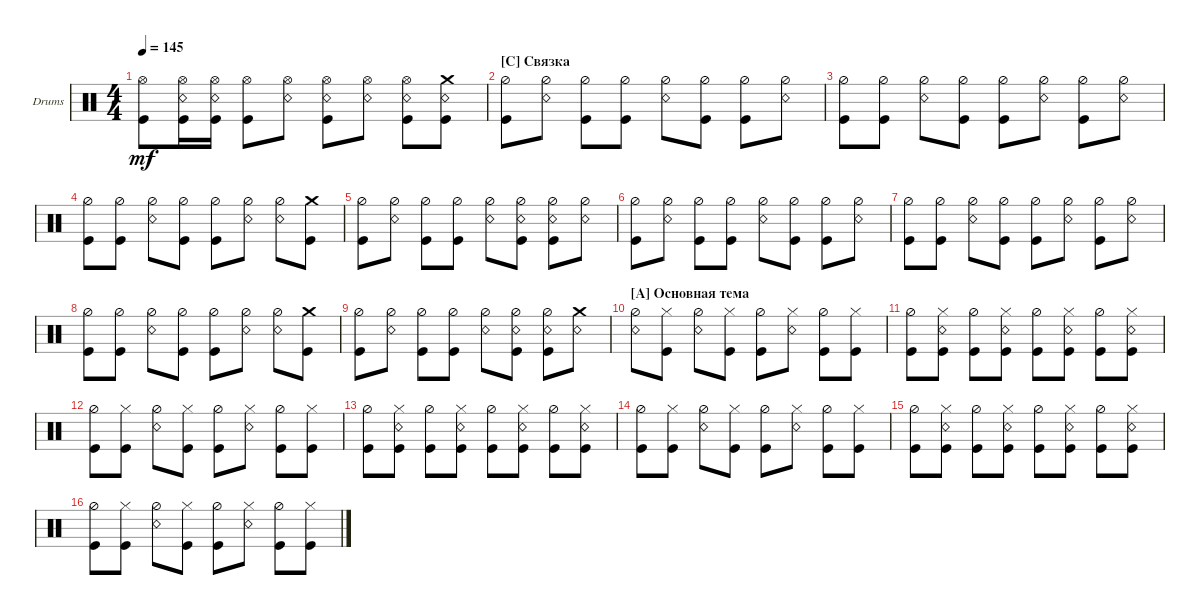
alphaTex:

\defaultSystemsLayout 4
\bracketExtendMode groupsimilarinstruments
\firstSystemTrackNameOrientation horizontal
\otherSystemsTrackNameOrientation horizontal
\track ("Drumkit" "Drums") {instrument percussion}
\staff {score}
\articulation defaults
\ts (4 4)
\tempo 145
\clef neutral
\ks c
("Kick (hit)" "Hi-Hat (open)").8{dy mf} ("Snare (rim shot)" "Hi-Hat (open)" "Kick (hit)").16 ("Snare (rim shot)" "Hi-Hat (open)" "Kick (hit)").16 ("Kick (hit)" "Hi-Hat (open)").8 ("Snare (rim shot)" "Hi-Hat (open)").8 ("Kick (hit)" "Snare (rim shot)" "Hi-Hat (open)").8 ("Snare (rim shot)" "Hi-Hat (open)").8 ("Kick (hit)" "Snare (rim shot)" "Hi-Hat (open)").8 ("Snare (rim shot)" "Crash medium (hit)" "Kick (hit)").8 |
\section ("C" "Связка")
("Kick (hit)" "Hi-Hat (half)").8 ("Snare (rim shot)" "Hi-Hat (half)").8 ("Kick (hit)" "Hi-Hat (half)").8 ("Kick (hit)" "Hi-Hat (half)").8 ("Snare (rim shot)" "Hi-Hat (half)").8 ("Kick (hit)" "Hi-Hat (half)").8 ("Kick (hit)" "Hi-Hat (half)").8 ("Snare (rim shot)" "Hi-Hat (half)").8 |
("Kick (hit)" "Hi-Hat (half)").8 ("Kick (hit)" "Hi-Hat (half)").8 ("Snare (rim shot)" "Hi-Hat (half)").8 ("Kick (hit)" "Hi-Hat (half)").8 ("Kick (hit)" "Hi-Hat (half)").8 ("Snare (rim shot)" "Hi-Hat (half)").8 ("Kick (hit)" "Hi-Hat (half)").8 ("Snare (rim shot)" "Hi-Hat (half)").8 |
("Kick (hit)" "Hi-Hat (half)").8 ("Kick (hit)" "Hi-Hat (half)").8 ("Snare (rim shot)" "Hi-Hat (half)").8 ("Kick (hit)" "Hi-Hat (half)").8 ("Kick (hit)" "Hi-Hat (half)").8 ("Snare (rim shot)" "Hi-Hat (half)").8 ("Snare (rim shot)" "Hi-Hat (half)").8 ("Kick (hit)" "Crash medium (hit)").8 |
("Kick (hit)" "Hi-Hat (half)").8 ("Snare (rim shot)" "Hi-Hat (half)").8 ("Kick (hit)" "Hi-Hat (half)").8 ("Kick (hit)" "Hi-Hat (half)").8 ("Snare (rim shot)" "Hi-Hat (half)").8 ("Kick (hit)" "Hi-Hat (half)" "Snare (rim shot)").8 ("Kick (hit)" "Hi-Hat (half)" "Snare (rim shot)").8 ("Snare (rim shot)" "Hi-Hat (half)").8 |
("Kick (hit)" "Hi-Hat (half)").8 ("Snare (rim shot)" "Hi-Hat (half)").8 ("Kick (hit)" "Hi-Hat (half)").8 ("Kick (hit)" "Hi-Hat (half)").8 ("Snare (rim shot)" "Hi-Hat (half)").8 ("Kick (hit)" "Hi-Hat (half)").8 ("Kick (hit)" "Hi-Hat (half)").8 ("Snare (rim shot)" "Hi-Hat (half)").8 |
("Kick (hit)" "Hi-Hat (half)").8 ("Kick (hit)" "Hi-Hat (half)").8 ("Snare (rim shot)" "Hi-Hat (half)").8 ("Kick (hit)" "Hi-Hat (half)").8 ("Kick (hit)" "Hi-Hat (half)").8 ("Snare (rim shot)" "Hi-Hat (half)").8 ("Kick (hit)" "Hi-Hat (half)").8 ("Snare (rim shot)" "Hi-Hat (half)").8 |
("Kick (hit)" "Hi-Hat (half)").8 ("Kick (hit)" "Hi-Hat (half)").8 ("Snare (rim shot)" "Hi-Hat (half)").8 ("Kick (hit)" "Hi-Hat (half)").8 ("Kick (hit)" "Hi-Hat (half)").8 ("Snare (rim shot)" "Hi-Hat (half)").8 ("Snare (rim shot)" "Hi-Hat (half)").8 ("Kick (hit)" "Crash medium (hit)").8 |
("Kick (hit)" "Hi-Hat (half)").8 ("Snare (rim shot)" "Hi-Hat (half)").8 ("Kick (hit)" "Hi-Hat (half)").8 ("Kick (hit)" "Hi-Hat (half)").8 ("Snare (rim shot)" "Hi-Hat (half)").8 ("Kick (hit)" "Hi-Hat (half)" "Snare (rim shot)").8 ("Kick (hit)" "Hi-Hat (half)" "Snare (rim shot)").8 ("Snare (rim shot)" "Crash medium (hit)").8 |
\section ("A" "Основная тема")
("Hi-Hat (half)" "Snare (rim shot)").8 ("Hi-Hat (closed)" "Kick (hit)").8 ("Hi-Hat (half)" "Snare (rim shot)").8 ("Hi-Hat (closed)" "Kick (hit)").8 ("Hi-Hat (half)" "Kick (hit)").8 ("Hi-Hat (closed)" "Snare (rim shot)").8 ("Hi-Hat (half)" "Kick (hit)").8 ("Hi-Hat (closed)" "Kick (hit)").8 |
("Kick (hit)" "Hi-Hat (half)").8 ("Kick (hit)" "Hi-Hat (closed)" "Snare (rim shot)").8 ("Kick (hit)" "Hi-Hat (half)").8 ("Kick (hit)" "Hi-Hat (closed)" "Snare (rim shot)").8 ("Kick (hit)" "Hi-Hat (half)").8 ("Kick (hit)" "Hi-Hat (closed)" "Snare (rim shot)").8 ("Kick (hit)" "Hi-Hat (half)").8 ("Kick (hit)" "Hi-Hat (closed)" "Snare (rim shot)").8 |
("Hi-Hat (half)" "Kick (hit)").8 ("Hi-Hat (closed)" "Kick (hit)").8 ("Hi-Hat (half)" "Snare (rim shot)").8 ("Hi-Hat (closed)" "Kick (hit)").8 ("Hi-Hat (half)" "Kick (hit)").8 ("Hi-Hat (closed)" "Snare (rim shot)").8 ("Hi-Hat (half)" "Kick (hit)").8 ("Hi-Hat (closed)" "Kick (hit)").8 |
("Kick (hit)" "Hi-Hat (half)").8 ("Kick (hit)" "Hi-Hat (closed)" "Snare (rim shot)").8 ("Kick (hit)" "Hi-Hat (half)").8 ("Kick (hit)" "Hi-Hat (closed)" "Snare (rim shot)").8 ("Kick (hit)" "Hi-Hat (half)").8 ("Kick (hit)" "Hi-Hat (closed)" "Snare (rim shot)").8 ("Kick (hit)" "Hi-Hat (half)").8 ("Kick (hit)" "Hi-Hat (closed)" "Snare (rim shot)").8 |
("Hi-Hat (half)" "Kick (hit)").8 ("Hi-Hat (closed)" "Kick (hit)").8 ("Hi-Hat (half)" "Snare (rim shot)").8 ("Hi-Hat (closed)" "Kick (hit)").8 ("Hi-Hat (half)" "Kick (hit)").8 ("Hi-Hat (closed)" "Snare (rim shot)").8 ("Hi-Hat (half)" "Kick (hit)").8 ("Hi-Hat (closed)" "Kick (hit)").8 |
("Kick (hit)" "Hi-Hat (half)").8 ("Kick (hit)" "Hi-Hat (closed)" "Snare (rim shot)").8 ("Kick (hit)" "Hi-Hat (half)").8 ("Kick (hit)" "Hi-Hat (closed)" "Snare (rim shot)").8 ("Kick (hit)" "Hi-Hat (half)").8 ("Kick (hit)" "Hi-Hat (closed)" "Snare (rim shot)").8 ("Kick (hit)" "Hi-Hat (half)").8 ("Kick (hit)" "Hi-Hat (closed)" "Snare (rim shot)").8 |
("Hi-Hat (half)" "Kick (hit)").8 ("Hi-Hat (closed)" "Kick (hit)").8 ("Hi-Hat (half)" "Snare (rim shot)").8 ("Hi-Hat (closed)" "Kick (hit)").8 ("Hi-Hat (half)" "Kick (hit)").8 ("Hi-Hat (closed)" "Snare (rim shot)").8 ("Hi-Hat (half)" "Kick (hit)").8 ("Hi-Hat (closed)" "Kick (hit)").8
